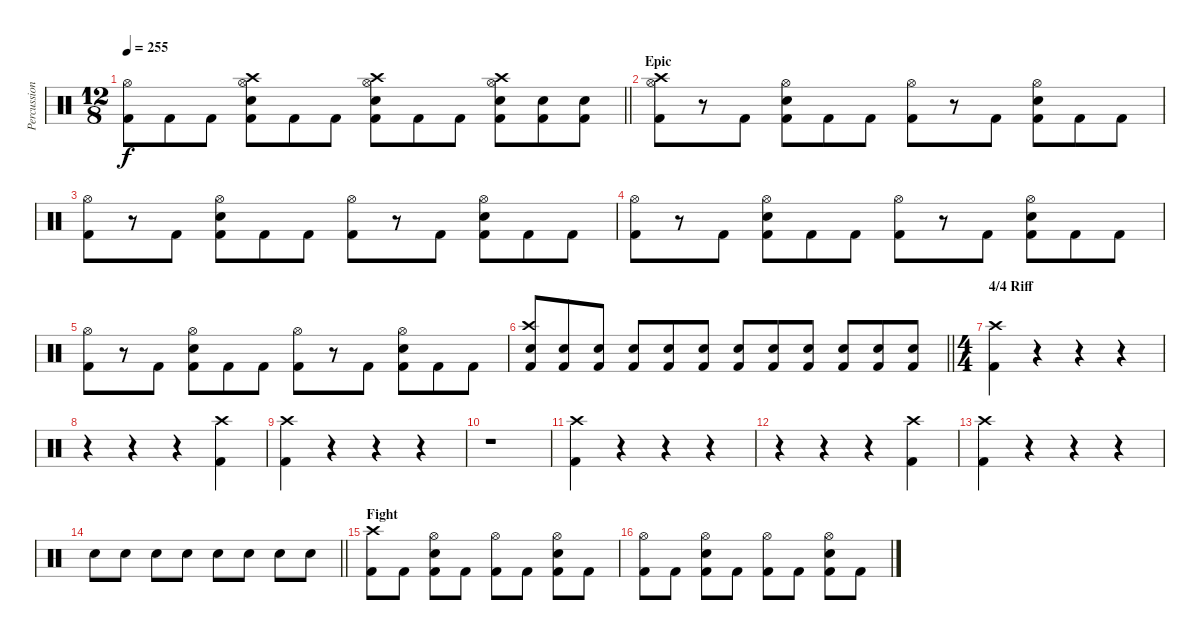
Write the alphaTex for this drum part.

\track ("Percussion" "Percussion") {instrument percussion}
\staff {score}
\articulation defaults
\ts (12 8)
\tempo 255
\clef neutral
\barLineRight lightlight
\ks c
("Hi-Hat (open)" "Kick (hit) 2").8{dy f} "Kick (hit) 2".8 "Kick (hit) 2".8 ("Crash high (hit)" "Hi-Hat (open)" "Snare (hit) 2" "Kick (hit) 2").8 "Kick (hit) 2".8 "Kick (hit) 2".8 ("Crash high (hit)" "Hi-Hat (open)" "Snare (hit) 2" "Kick (hit) 2").8 "Kick (hit) 2".8 "Kick (hit) 2".8 ("Crash high (hit)" "Hi-Hat (open)" "Snare (hit) 2" "Kick (hit) 2").8 ("Snare (hit) 2" "Kick (hit) 2").8 ("Snare (hit) 2" "Kick (hit) 2").8 |
\section ("" "Epic")
("Crash high (hit)" "Hi-Hat (open)" "Kick (hit) 2").8 r.8 "Kick (hit) 2".8 ("Hi-Hat (open)" "Snare (hit) 2" "Kick (hit) 2").8 "Kick (hit) 2".8 "Kick (hit) 2".8 ("Hi-Hat (open)" "Kick (hit) 2").8 r.8 "Kick (hit) 2".8 ("Hi-Hat (open)" "Snare (hit) 2" "Kick (hit) 2").8 "Kick (hit) 2".8 "Kick (hit) 2".8 |
("Hi-Hat (open)" "Kick (hit) 2").8 r.8 "Kick (hit) 2".8 ("Hi-Hat (open)" "Snare (hit) 2" "Kick (hit) 2").8 "Kick (hit) 2".8 "Kick (hit) 2".8 ("Hi-Hat (open)" "Kick (hit) 2").8 r.8 "Kick (hit) 2".8 ("Hi-Hat (open)" "Snare (hit) 2" "Kick (hit) 2").8 "Kick (hit) 2".8 "Kick (hit) 2".8 |
("Hi-Hat (open)" "Kick (hit) 2").8 r.8 "Kick (hit) 2".8 ("Hi-Hat (open)" "Snare (hit) 2" "Kick (hit) 2").8 "Kick (hit) 2".8 "Kick (hit) 2".8 ("Hi-Hat (open)" "Kick (hit) 2").8 r.8 "Kick (hit) 2".8 ("Hi-Hat (open)" "Snare (hit) 2" "Kick (hit) 2").8 "Kick (hit) 2".8 "Kick (hit) 2".8 |
("Hi-Hat (open)" "Kick (hit) 2").8 r.8 "Kick (hit) 2".8 ("Hi-Hat (open)" "Snare (hit) 2" "Kick (hit) 2").8 "Kick (hit) 2".8 "Kick (hit) 2".8 ("Hi-Hat (open)" "Kick (hit) 2").8 r.8 "Kick (hit) 2".8 ("Hi-Hat (open)" "Snare (hit) 2" "Kick (hit) 2").8 "Kick (hit) 2".8 "Kick (hit) 2".8 |
\barLineRight lightlight
("Crash high (hit)" "Snare (hit) 2" "Kick (hit) 2").8 ("Snare (hit) 2" "Kick (hit) 2").8 ("Snare (hit) 2" "Kick (hit) 2").8 ("Snare (hit) 2" "Kick (hit) 2").8 ("Snare (hit) 2" "Kick (hit) 2").8 ("Snare (hit) 2" "Kick (hit) 2").8 ("Snare (hit) 2" "Kick (hit) 2").8 ("Snare (hit) 2" "Kick (hit) 2").8 ("Snare (hit) 2" "Kick (hit) 2").8 ("Snare (hit) 2" "Kick (hit) 2").8 ("Snare (hit) 2" "Kick (hit) 2").8 ("Snare (hit) 2" "Kick (hit) 2").8 |
\ts (4 4)
\section ("" "4/4 Riff")
("Crash high (hit)" "Kick (hit) 2").4 r.4 r.4 r.4 |
r.4 r.4 r.4 ("Crash high (hit)" "Kick (hit) 2").4 |
("Crash high (hit)" "Kick (hit) 2").4 r.4 r.4 r.4 |
r.1 |
("Crash high (hit)" "Kick (hit) 2").4 r.4 r.4 r.4 |
r.4 r.4 r.4 ("Crash high (hit)" "Kick (hit) 2").4 |
("Crash high (hit)" "Kick (hit) 2").4 r.4 r.4 r.4 |
\barLineRight lightlight "Snare (hit) 2".8 "Snare (hit) 2".8 "Snare (hit) 2".8 "Snare (hit) 2".8 "Snare (hit) 2".8 "Snare (hit) 2".8 "Snare (hit) 2".8 "Snare (hit) 2".8
|
\section ("" "Fight")
("Crash high (hit)" "Kick (hit) 2").8 "Kick (hit) 2".8 ("Hi-Hat (open)" "Snare (hit) 2" "Kick (hit) 2").8 "Kick (hit) 2".8 ("Hi-Hat (open)" "Kick (hit) 2").8 "Kick (hit) 2".8 ("Hi-Hat (open)" "Snare (hit) 2" "Kick (hit) 2").8 "Kick (hit) 2".8 |
("Hi-Hat (open)" "Kick (hit) 2").8 "Kick (hit) 2".8 ("Hi-Hat (open)" "Snare (hit) 2" "Kick (hit) 2").8 "Kick (hit) 2".8 ("Hi-Hat (open)" "Kick (hit) 2").8 "Kick (hit) 2".8 ("Hi-Hat (open)" "Snare (hit) 2" "Kick (hit) 2").8 "Kick (hit) 2".8
